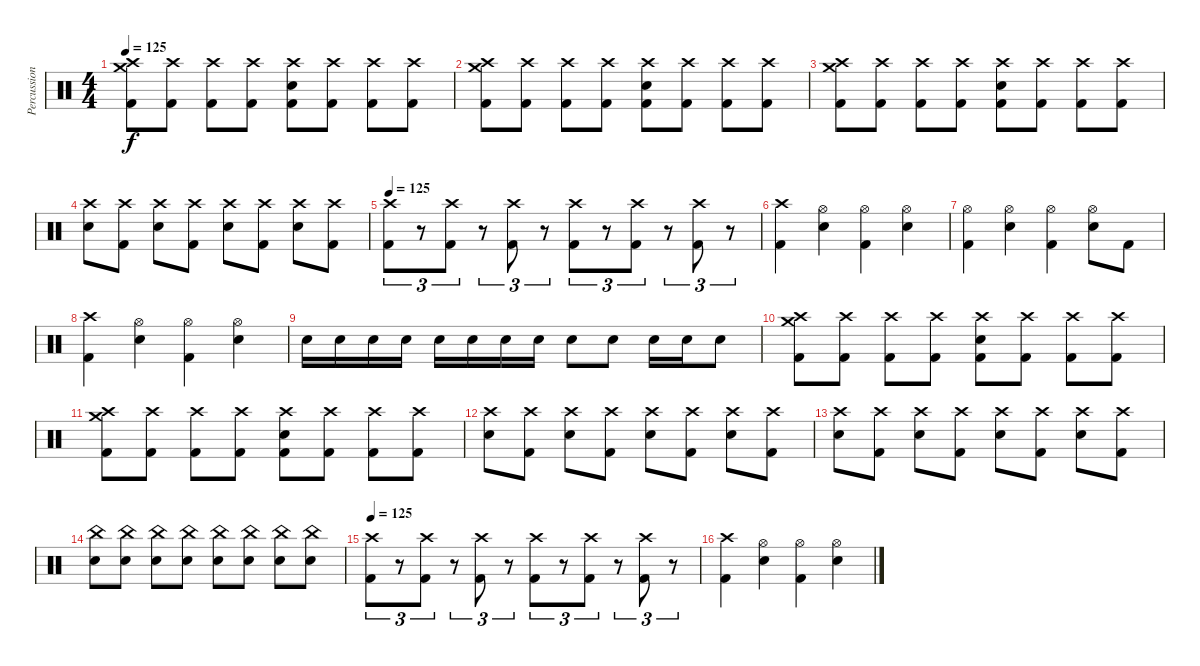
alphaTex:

\track ("Percussion" "Percussion") {instrument percussion}
\staff {score}
\articulation defaults
\ts (4 4)
\tempo 125
\clef neutral
\ks c
("Crash high (hit)" "Crash medium (hit)" "Kick (hit) 2").8{dy f} ("Crash high (hit)" "Kick (hit) 2").8 ("Crash high (hit)" "Kick (hit) 2").8 ("Crash high (hit)" "Kick (hit) 2").8 ("Crash high (hit)" "Electric Snare (hit)" "Kick (hit) 2").8 ("Crash high (hit)" "Kick (hit) 2").8 ("Crash high (hit)" "Kick (hit) 2").8 ("Crash high (hit)" "Kick (hit) 2").8 |
("Crash high (hit)" "Crash medium (hit)" "Kick (hit) 2").8 ("Crash high (hit)" "Kick (hit) 2").8 ("Crash high (hit)" "Kick (hit) 2").8 ("Crash high (hit)" "Kick (hit) 2").8 ("Crash high (hit)" "Electric Snare (hit)" "Kick (hit) 2").8 ("Crash high (hit)" "Kick (hit) 2").8 ("Crash high (hit)" "Kick (hit) 2").8 ("Crash high (hit)" "Kick (hit) 2").8 |
("Crash high (hit)" "Crash medium (hit)" "Kick (hit) 2").8 ("Crash high (hit)" "Kick (hit) 2").8 ("Crash high (hit)" "Kick (hit) 2").8 ("Crash high (hit)" "Kick (hit) 2").8 ("Crash high (hit)" "Electric Snare (hit)" "Kick (hit) 2").8 ("Crash high (hit)" "Kick (hit) 2").8 ("Crash high (hit)" "Kick (hit) 2").8 ("Crash high (hit)" "Kick (hit) 2").8 |
("Crash high (hit)" "Electric Snare (hit)").8 ("Crash high (hit)" "Kick (hit) 2").8 ("Crash high (hit)" "Electric Snare (hit)").8 ("Crash high (hit)" "Kick (hit) 2").8 ("Crash high (hit)" "Electric Snare (hit)").8 ("Crash high (hit)" "Kick (hit) 2").8 ("Crash high (hit)" "Electric Snare (hit)").8 ("Crash high (hit)" "Kick (hit) 2").8 |
\tempo 125
("Crash high (hit)" "Kick (hit) 2").8{tu (3 2) volume 13} r.8{tu (3 2) volume 0} ("Crash high (hit)" "Kick (hit) 2").8{tu (3 2) volume 13} r.8{tu (3 2) volume 0} ("Crash high (hit)" "Kick (hit) 2").8{tu (3 2) volume 13} r.8{tu (3 2) volume 0} ("Crash high (hit)" "Kick (hit) 2").8{tu (3 2) volume 13} r.8{tu (3 2) volume 0} ("Crash high (hit)" "Kick (hit) 2").8{tu (3 2) volume 13} r.8{tu (3 2) volume 0} ("Crash high (hit)" "Kick (hit) 2").8{tu (3 2) volume 13} r.8{tu (3 2) volume 0} |
("Crash high (hit)" "Kick (hit) 2").4{volume 13} ("Hi-Hat (open)" "Electric Snare (hit)").4 ("Hi-Hat (open)" "Kick (hit) 2").4 ("Hi-Hat (open)" "Electric Snare (hit)").4 |
("Hi-Hat (open)" "Kick (hit) 2").4 ("Hi-Hat (open)" "Electric Snare (hit)").4 ("Hi-Hat (open)" "Kick (hit) 2").4 ("Hi-Hat (open)" "Electric Snare (hit)").8 "Kick (hit) 2".8 |
("Crash high (hit)" "Kick (hit) 2").4 ("Hi-Hat (open)" "Electric Snare (hit)").4 ("Hi-Hat (open)" "Kick (hit) 2").4 ("Hi-Hat (open)" "Electric Snare (hit)").4 |
"Electric Snare (hit)".16 "Electric Snare (hit)".16 "Electric Snare (hit)".16 "Electric Snare (hit)".16 "Electric Snare (hit)".16 "Electric Snare (hit)".16 "Electric Snare (hit)".16 "Electric Snare (hit)".16 "Electric Snare (hit)".8 "Electric Snare (hit)".8 "Electric Snare (hit)".16 "Electric Snare (hit)".16 "Electric Snare (hit)".8 |
("Crash high (hit)" "Crash medium (hit)" "Kick (hit) 2").8 ("Crash high (hit)" "Kick (hit) 2").8 ("Crash high (hit)" "Kick (hit) 2").8 ("Crash high (hit)" "Kick (hit) 2").8 ("Crash high (hit)" "Electric Snare (hit)" "Kick (hit) 2").8 ("Crash high (hit)" "Kick (hit) 2").8 ("Crash high (hit)" "Kick (hit) 2").8 ("Crash high (hit)" "Kick (hit) 2").8 |
("Crash high (hit)" "Crash medium (hit)" "Kick (hit) 2").8 ("Crash high (hit)" "Kick (hit) 2").8 ("Crash high (hit)" "Kick (hit) 2").8 ("Crash high (hit)" "Kick (hit) 2").8 ("Crash high (hit)" "Electric Snare (hit)" "Kick (hit) 2").8 ("Crash high (hit)" "Kick (hit) 2").8 ("Crash high (hit)" "Kick (hit) 2").8 ("Crash high (hit)" "Kick (hit) 2").8 |
("Crash high (hit)" "Electric Snare (hit)").8 ("Crash high (hit)" "Kick (hit) 2").8 ("Crash high (hit)" "Electric Snare (hit)").8 ("Crash high (hit)" "Kick (hit) 2").8 ("Crash high (hit)" "Electric Snare (hit)").8 ("Crash high (hit)" "Kick (hit) 2").8 ("Crash high (hit)" "Electric Snare (hit)").8 ("Crash high (hit)" "Kick (hit) 2").8 |
("Crash high (hit)" "Electric Snare (hit)").8 ("Crash high (hit)" "Kick (hit) 2").8 ("Crash high (hit)" "Electric Snare (hit)").8 ("Crash high (hit)" "Kick (hit) 2").8 ("Crash high (hit)" "Electric Snare (hit)").8 ("Crash high (hit)" "Kick (hit) 2").8 ("Crash high (hit)" "Electric Snare (hit)").8 ("Crash high (hit)" "Kick (hit) 2").8 |
("China (hit)" "Electric Snare (hit)").8 ("China (hit)" "Electric Snare (hit)").8 ("China (hit)" "Electric Snare (hit)").8 ("China (hit)" "Electric Snare (hit)").8 ("China (hit)" "Electric Snare (hit)").8 ("China (hit)" "Electric Snare (hit)").8 ("China (hit)" "Electric Snare (hit)").8 ("China (hit)" "Electric Snare (hit)").8 |
\tempo 125
("Crash high (hit)" "Kick (hit) 2").8{tu (3 2) volume 13} r.8{tu (3 2) volume 0} ("Crash high (hit)" "Kick (hit) 2").8{tu (3 2) volume 13} r.8{tu (3 2) volume 0} ("Crash high (hit)" "Kick (hit) 2").8{tu (3 2) volume 13} r.8{tu (3 2) volume 0} ("Crash high (hit)" "Kick (hit) 2").8{tu (3 2) volume 13} r.8{tu (3 2) volume 0} ("Crash high (hit)" "Kick (hit) 2").8{tu (3 2) volume 13} r.8{tu (3 2) volume 0} ("Crash high (hit)" "Kick (hit) 2").8{tu (3 2) volume 13} r.8{tu (3 2) volume 0} |
("Crash high (hit)" "Kick (hit) 2").4{volume 13} ("Hi-Hat (open)" "Electric Snare (hit)").4 ("Hi-Hat (open)" "Kick (hit) 2").4 ("Hi-Hat (open)" "Electric Snare (hit)").4
